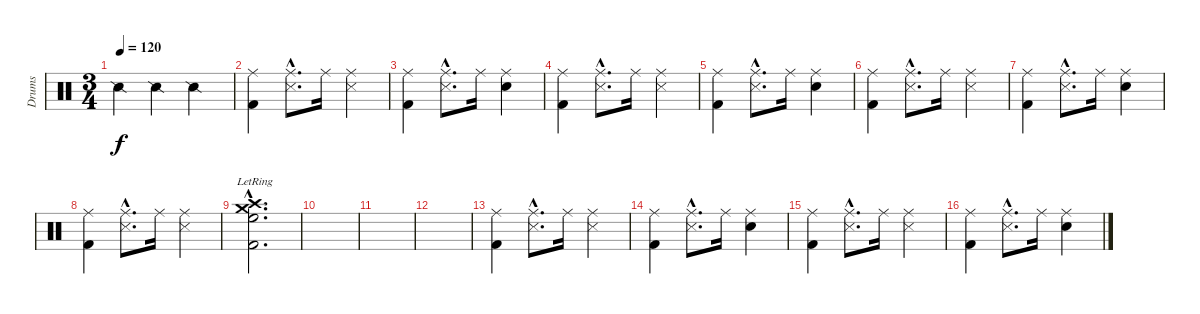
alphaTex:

\track ("Drums" "Drums") {instrument percussion}
\staff {score}
\articulation defaults
\ts (3 4)
\tempo 120
\clef neutral
\ks c "Snare (side stick) 2".4{dy f} "Snare (side stick) 2".4 "Snare (side stick) 2".4
|
("Ride (middle)" "Kick (hit) 2").4 ("Ride (middle)"{hac} "Snare (side stick) 3"{hac}).8{d} "Ride (middle)".16 ("Ride (middle)" "Snare (side stick) 3").4 |
("Ride (middle)" "Kick (hit) 2").4 ("Ride (middle)"{hac} "Snare (side stick) 3"{hac}).8{d} "Ride (middle)".16 ("Ride (middle)" "Snare (hit) 2").4 |
("Ride (middle)" "Kick (hit) 2").4 ("Ride (middle)"{hac} "Snare (side stick) 3"{hac}).8{d} "Ride (middle)".16 ("Ride (middle)" "Snare (side stick) 3").4 |
("Ride (middle)" "Kick (hit) 2").4 ("Ride (middle)"{hac} "Snare (side stick) 3"{hac}).8{d} "Ride (middle)".16 ("Ride (middle)" "Snare (hit) 2").4 |
("Ride (middle)" "Kick (hit) 2").4 ("Ride (middle)"{hac} "Snare (side stick) 3"{hac}).8{d} "Ride (middle)".16 ("Ride (middle)" "Snare (side stick) 3").4 |
("Ride (middle)" "Kick (hit) 2").4 ("Ride (middle)"{hac} "Snare (side stick) 3"{hac}).8{d} "Ride (middle)".16 ("Ride (middle)" "Snare (hit) 2").4 |
("Ride (middle)" "Kick (hit) 2").4 ("Ride (middle)"{hac} "Snare (side stick) 3"{hac}).8{d} "Ride (middle)".16 ("Ride (middle)" "Snare (side stick) 3").4 |
("Crash medium (hit)"{hac lr} "Crash high (hit)"{hac lr} "High Floor Tom (hit)"{hac lr} "Kick (hit) 2"{hac lr}).2{d} |
|
|
|
("Ride (middle)" "Kick (hit) 2").4 ("Ride (middle)"{hac} "Snare (side stick) 3"{hac}).8{d} "Ride (middle)".16 ("Ride (middle)" "Snare (side stick) 3").4 |
("Ride (middle)" "Kick (hit) 2").4 ("Ride (middle)"{hac} "Snare (side stick) 3"{hac}).8{d} "Ride (middle)".16 ("Ride (middle)" "Snare (hit) 2").4 |
("Ride (middle)" "Kick (hit) 2").4 ("Ride (middle)"{hac} "Snare (side stick) 3"{hac}).8{d} "Ride (middle)".16 ("Ride (middle)" "Snare (side stick) 3").4 |
("Ride (middle)" "Kick (hit) 2").4 ("Ride (middle)"{hac} "Snare (side stick) 3"{hac}).8{d} "Ride (middle)".16 ("Ride (middle)" "Snare (hit) 2").4
